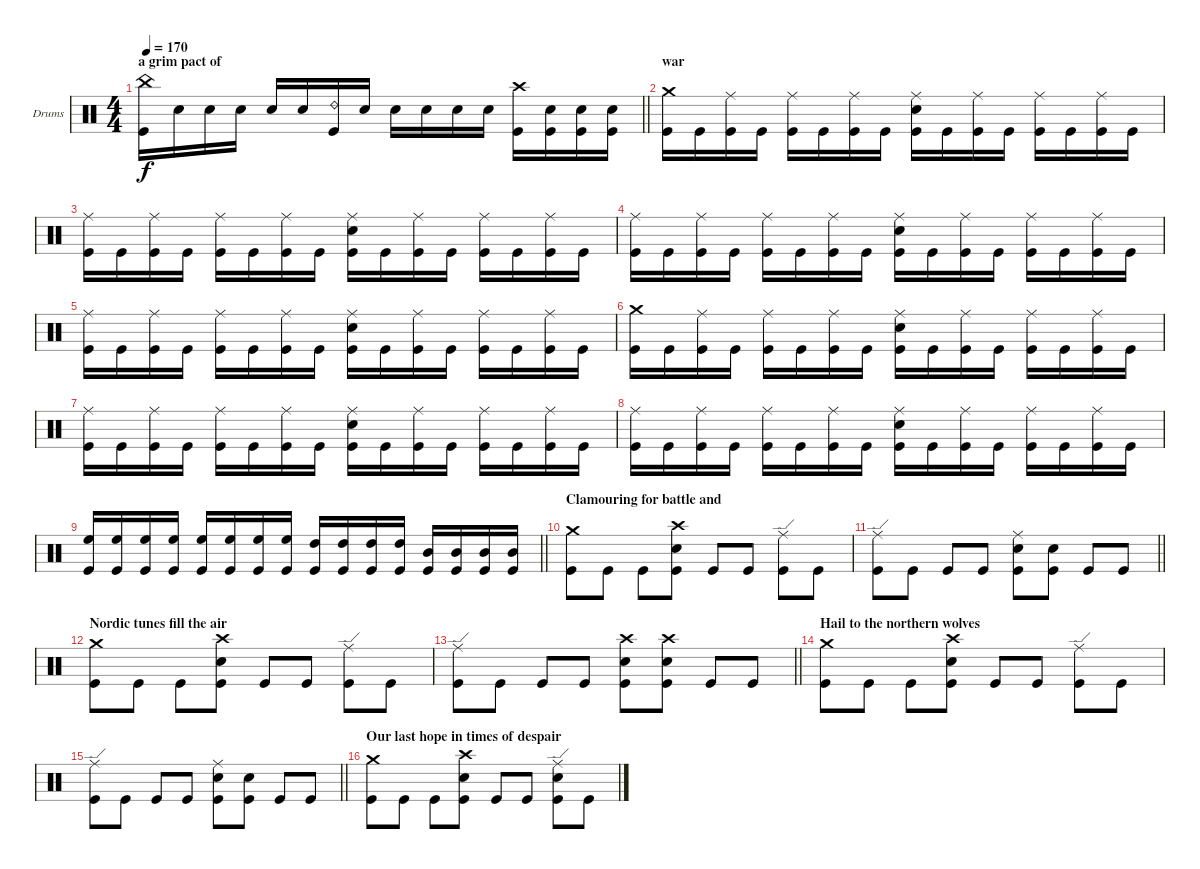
\bracketExtendMode groupsimilarinstruments
\firstSystemTrackNameOrientation horizontal
\otherSystemsTrackNameOrientation horizontal
\track ("Drumkit" "Drums") {instrument percussion}
\staff {score}
\articulation defaults
\ts (4 4)
\section ("" "a grim pact of ")
\tempo 170
\clef neutral
\barLineRight lightlight
\ks c
("China (hit)" "Kick (hit)").16{dy f} "Snare (hit) 2".16 "Snare (hit) 2".16 "Snare (hit) 2".16 "Snare (hit) 2".16 "Snare (hit) 2".16 ("Ride (bell) 2" "Kick (hit)").16 "Snare (hit) 2".16 "Snare (hit) 2".16 "Snare (hit) 2".16 "Snare (hit) 2".16 "Snare (hit) 2".16 ("Crash high (hit)" "Kick (hit)").16 ("Snare (hit) 2" "Kick (hit)").16 ("Snare (hit) 2" "Kick (hit)").16 ("Snare (hit) 2" "Kick (hit)").16 |
\section ("" "war")
("Crash medium (hit)" "Kick (hit)").16 "Kick (hit)".16 ("Ride (middle)" "Kick (hit)").16 "Kick (hit)".16 ("Ride (middle)" "Kick (hit)").16 "Kick (hit)".16 ("Ride (middle)" "Kick (hit)").16 "Kick (hit)".16 ("Ride (middle)" "Snare (hit) 2" "Kick (hit)").16 "Kick (hit)".16 ("Ride (middle)" "Kick (hit)").16 "Kick (hit)".16 ("Ride (middle)" "Kick (hit)").16 "Kick (hit)".16 ("Ride (middle)" "Kick (hit)").16 "Kick (hit)".16 |
("Ride (middle)" "Kick (hit)").16 "Kick (hit)".16 ("Ride (middle)" "Kick (hit)").16 "Kick (hit)".16 ("Ride (middle)" "Kick (hit)").16 "Kick (hit)".16 ("Ride (middle)" "Kick (hit)").16 "Kick (hit)".16 ("Ride (middle)" "Snare (hit) 2" "Kick (hit)").16 "Kick (hit)".16 ("Ride (middle)" "Kick (hit)").16 "Kick (hit)".16 ("Ride (middle)" "Kick (hit)").16 "Kick (hit)".16 ("Ride (middle)" "Kick (hit)").16 "Kick (hit)".16 |
("Ride (middle)" "Kick (hit)").16 "Kick (hit)".16 ("Ride (middle)" "Kick (hit)").16 "Kick (hit)".16 ("Ride (middle)" "Kick (hit)").16 "Kick (hit)".16 ("Ride (middle)" "Kick (hit)").16 "Kick (hit)".16 ("Ride (middle)" "Snare (hit) 2" "Kick (hit)").16 "Kick (hit)".16 ("Ride (middle)" "Kick (hit)").16 "Kick (hit)".16 ("Ride (middle)" "Kick (hit)").16 "Kick (hit)".16 ("Ride (middle)" "Kick (hit)").16 "Kick (hit)".16 |
("Ride (middle)" "Kick (hit)").16 "Kick (hit)".16 ("Ride (middle)" "Kick (hit)").16 "Kick (hit)".16 ("Ride (middle)" "Kick (hit)").16 "Kick (hit)".16 ("Ride (middle)" "Kick (hit)").16 "Kick (hit)".16 ("Ride (middle)" "Snare (hit) 2" "Kick (hit)").16 "Kick (hit)".16 ("Ride (middle)" "Kick (hit)").16 "Kick (hit)".16 ("Ride (middle)" "Kick (hit)").16 "Kick (hit)".16 ("Ride (middle)" "Kick (hit)").16 "Kick (hit)".16 |
("Crash medium (hit)" "Kick (hit)").16 "Kick (hit)".16 ("Ride (middle)" "Kick (hit)").16 "Kick (hit)".16 ("Ride (middle)" "Kick (hit)").16 "Kick (hit)".16 ("Ride (middle)" "Kick (hit)").16 "Kick (hit)".16 ("Ride (middle)" "Snare (hit) 2" "Kick (hit)").16 "Kick (hit)".16 ("Ride (middle)" "Kick (hit)").16 "Kick (hit)".16 ("Ride (middle)" "Kick (hit)").16 "Kick (hit)".16 ("Ride (middle)" "Kick (hit)").16 "Kick (hit)".16 |
("Ride (middle)" "Kick (hit)").16 "Kick (hit)".16 ("Ride (middle)" "Kick (hit)").16 "Kick (hit)".16 ("Ride (middle)" "Kick (hit)").16 "Kick (hit)".16 ("Ride (middle)" "Kick (hit)").16 "Kick (hit)".16 ("Ride (middle)" "Snare (hit) 2" "Kick (hit)").16 "Kick (hit)".16 ("Ride (middle)" "Kick (hit)").16 "Kick (hit)".16 ("Ride (middle)" "Kick (hit)").16 "Kick (hit)".16 ("Ride (middle)" "Kick (hit)").16 "Kick (hit)".16 |
("Ride (middle)" "Kick (hit)").16 "Kick (hit)".16 ("Ride (middle)" "Kick (hit)").16 "Kick (hit)".16 ("Ride (middle)" "Kick (hit)").16 "Kick (hit)".16 ("Ride (middle)" "Kick (hit)").16 "Kick (hit)".16 ("Ride (middle)" "Snare (hit) 2" "Kick (hit)").16 "Kick (hit)".16 ("Ride (middle)" "Kick (hit)").16 "Kick (hit)".16 ("Ride (middle)" "Kick (hit)").16 "Kick (hit)".16 ("Ride (middle)" "Kick (hit)").16 "Kick (hit)".16 |
\barLineRight lightlight
("High Floor Tom (hit)" "Kick (hit)").16 ("High Floor Tom (hit)" "Kick (hit)").16 ("High Floor Tom (hit)" "Kick (hit)").16 ("High Floor Tom (hit)" "Kick (hit)").16 ("High Floor Tom (hit)" "Kick (hit)").16 ("High Floor Tom (hit)" "Kick (hit)").16 ("High Floor Tom (hit)" "Kick (hit)").16 ("High Floor Tom (hit)" "Kick (hit)").16 ("High Tom (hit)" "Kick (hit)").16 ("High Tom (hit)" "Kick (hit)").16 ("High Tom (hit)" "Kick (hit)").16 ("High Tom (hit)" "Kick (hit)").16 ("Mid Tom (hit)" "Kick (hit)").16 ("Mid Tom (hit)" "Kick (hit)").16 ("Mid Tom (hit)" "Kick (hit)").16 ("Mid Tom (hit)" "Kick (hit)").16 |
\section ("" "Clamouring for battle and ")
("Crash medium (hit)" "Kick (hit)").8 "Kick (hit)".8 "Kick (hit)".8 ("Crash high (hit)" "Snare (hit) 2" "Kick (hit)").8 "Kick (hit)".8 "Kick (hit)".8 ("Ride (edge)" "Kick (hit)").8 "Kick (hit)".8 |
\barLineRight lightlight
("Ride (edge)" "Kick (hit)").8 "Kick (hit)".8 "Kick (hit)".8 "Kick (hit)".8 ("Ride (middle)" "Snare (hit) 2" "Kick (hit)").8 ("Snare (hit) 2" "Kick (hit)").8 "Kick (hit)".8 "Kick (hit)".8 |
\section ("" "Nordic tunes fill the air")
("Crash medium (hit)" "Kick (hit)").8 "Kick (hit)".8 "Kick (hit)".8 ("Crash high (hit)" "Snare (hit) 2" "Kick (hit)").8 "Kick (hit)".8 "Kick (hit)".8 ("Ride (edge)" "Kick (hit)").8 "Kick (hit)".8 |
\barLineRight lightlight
("Ride (edge)" "Kick (hit)").8 "Kick (hit)".8 "Kick (hit)".8 "Kick (hit)".8 ("Crash high (hit)" "Snare (hit) 2" "Kick (hit)").8 ("Crash high (hit)" "Snare (hit) 2" "Kick (hit)").8 "Kick (hit)".8 "Kick (hit)".8 |
\section ("" "Hail to the northern wolves")
("Crash medium (hit)" "Kick (hit)").8 "Kick (hit)".8 "Kick (hit)".8 ("Crash high (hit)" "Snare (hit) 2" "Kick (hit)").8 "Kick (hit)".8 "Kick (hit)".8 ("Ride (edge)" "Kick (hit)").8 "Kick (hit)".8 |
\barLineRight lightlight
("Ride (edge)" "Kick (hit)").8 "Kick (hit)".8 "Kick (hit)".8 "Kick (hit)".8 ("Ride (middle)" "Snare (hit) 2" "Kick (hit)").8 ("Snare (hit) 2" "Kick (hit)").8 "Kick (hit)".8 "Kick (hit)".8 |
\section ("" "Our last hope in times of despair")
("Crash medium (hit)" "Kick (hit)").8 "Kick (hit)".8 "Kick (hit)".8 ("Crash high (hit)" "Snare (hit) 2" "Kick (hit)").8 "Kick (hit)".8 "Kick (hit)".8 ("Ride (edge)" "Snare (hit) 2" "Kick (hit)").8 "Kick (hit)".8
